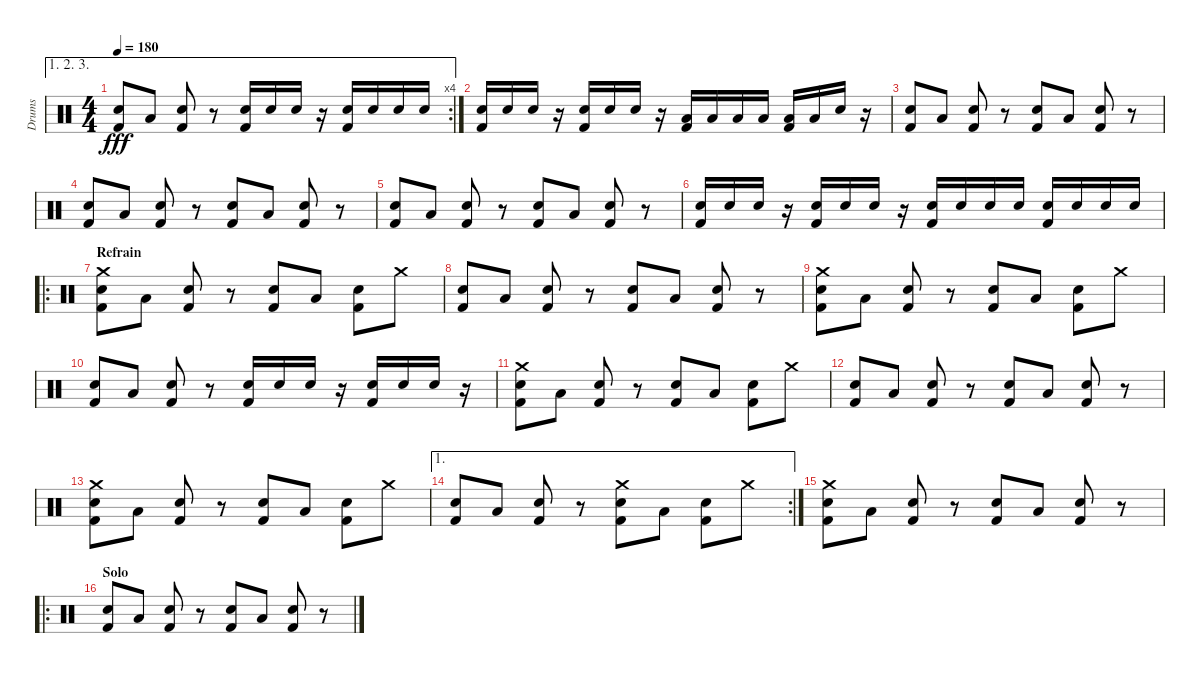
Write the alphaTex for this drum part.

\track ("Drums" "Drums") {instrument percussion}
\staff {score}
\articulation defaults
\ae (1 2 3)
\rc 4
\ts (4 4)
\tempo 180
\clef neutral
\ks c
("Snare (hit) 2" "Kick (hit) 2").8{dy fff} "Low Floor Tom (hit)".8 ("Snare (hit) 2" "Kick (hit) 2").8 r.8 ("Snare (hit) 2" "Kick (hit) 2").16 "Snare (hit) 2".16 "Snare (hit) 2".16 r.16 ("Snare (hit) 2" "Kick (hit) 2").16 "Snare (hit) 2".16 "Snare (hit) 2".16 "Snare (hit) 2".16 |
("Snare (hit) 2" "Kick (hit) 2").16 "Snare (hit) 2".16 "Snare (hit) 2".16 r.16 ("Snare (hit) 2" "Kick (hit) 2").16 "Snare (hit) 2".16 "Snare (hit) 2".16 r.16 ("Low Floor Tom (hit)" "Kick (hit) 2").16 "Low Floor Tom (hit)".16 "Low Floor Tom (hit)".16 "Low Floor Tom (hit)".16 ("Low Floor Tom (hit)" "Kick (hit) 2").16 "Low Floor Tom (hit)".16 "Snare (hit) 2".16 r.16 |
("Snare (hit) 2" "Kick (hit) 2").8 "Low Floor Tom (hit)".8 ("Snare (hit) 2" "Kick (hit) 2").8 r.8 ("Snare (hit) 2" "Kick (hit) 2").8 "Low Floor Tom (hit)".8 ("Snare (hit) 2" "Kick (hit) 2").8 r.8 |
("Snare (hit) 2" "Kick (hit) 2").8 "Low Floor Tom (hit)".8 ("Snare (hit) 2" "Kick (hit) 2").8 r.8 ("Snare (hit) 2" "Kick (hit) 2").8 "Low Floor Tom (hit)".8 ("Snare (hit) 2" "Kick (hit) 2").8 r.8 |
("Snare (hit) 2" "Kick (hit) 2").8 "Low Floor Tom (hit)".8 ("Snare (hit) 2" "Kick (hit) 2").8 r.8 ("Snare (hit) 2" "Kick (hit) 2").8 "Low Floor Tom (hit)".8 ("Snare (hit) 2" "Kick (hit) 2").8 r.8 |
("Snare (hit) 2" "Kick (hit) 2").16 "Snare (hit) 2".16 "Snare (hit) 2".16 r.16 ("Snare (hit) 2" "Kick (hit) 2").16 "Snare (hit) 2".16 "Snare (hit) 2".16 r.16 ("Snare (hit) 2" "Kick (hit) 2").16 "Snare (hit) 2".16 "Snare (hit) 2".16 "Snare (hit) 2".16 ("Snare (hit) 2" "Kick (hit) 2").16 "Snare (hit) 2".16 "Snare (hit) 2".16 "Snare (hit) 2".16 |
\ro
\section ("" "Refrain")
("Crash medium (hit)" "Snare (hit) 2" "Kick (hit) 2").8 "Low Floor Tom (hit)".8 ("Snare (hit) 2" "Kick (hit) 2").8 r.8 ("Snare (hit) 2" "Kick (hit) 2").8 "Low Floor Tom (hit)".8 ("Snare (hit) 2" "Kick (hit) 2").8 "Crash medium (hit)".8 |
("Snare (hit) 2" "Kick (hit) 2").8 "Low Floor Tom (hit)".8 ("Snare (hit) 2" "Kick (hit) 2").8 r.8 ("Snare (hit) 2" "Kick (hit) 2").8 "Low Floor Tom (hit)".8 ("Snare (hit) 2" "Kick (hit) 2").8 r.8 |
("Crash medium (hit)" "Snare (hit) 2" "Kick (hit) 2").8 "Low Floor Tom (hit)".8 ("Snare (hit) 2" "Kick (hit) 2").8 r.8 ("Snare (hit) 2" "Kick (hit) 2").8 "Low Floor Tom (hit)".8 ("Snare (hit) 2" "Kick (hit) 2").8 "Crash medium (hit)".8 |
("Snare (hit) 2" "Kick (hit) 2").8 "Low Floor Tom (hit)".8 ("Snare (hit) 2" "Kick (hit) 2").8 r.8 ("Snare (hit) 2" "Kick (hit) 2").16 "Snare (hit) 2".16 "Snare (hit) 2".16 r.16 ("Snare (hit) 2" "Kick (hit) 2").16 "Snare (hit) 2".16 "Snare (hit) 2".16 r.16 |
("Crash medium (hit)" "Snare (hit) 2" "Kick (hit) 2").8 "Low Floor Tom (hit)".8 ("Snare (hit) 2" "Kick (hit) 2").8 r.8 ("Snare (hit) 2" "Kick (hit) 2").8 "Low Floor Tom (hit)".8 ("Snare (hit) 2" "Kick (hit) 2").8 "Crash medium (hit)".8 |
("Snare (hit) 2" "Kick (hit) 2").8 "Low Floor Tom (hit)".8 ("Snare (hit) 2" "Kick (hit) 2").8 r.8 ("Snare (hit) 2" "Kick (hit) 2").8 "Low Floor Tom (hit)".8 ("Snare (hit) 2" "Kick (hit) 2").8 r.8 |
("Crash medium (hit)" "Snare (hit) 2" "Kick (hit) 2").8 "Low Floor Tom (hit)".8 ("Snare (hit) 2" "Kick (hit) 2").8 r.8 ("Snare (hit) 2" "Kick (hit) 2").8 "Low Floor Tom (hit)".8 ("Snare (hit) 2" "Kick (hit) 2").8 "Crash medium (hit)".8 |
\ae 1
\rc 2
("Snare (hit) 2" "Kick (hit) 2").8 "Low Floor Tom (hit)".8 ("Snare (hit) 2" "Kick (hit) 2").8 r.8 ("Crash medium (hit)" "Snare (hit) 2" "Kick (hit) 2").8 "Low Floor Tom (hit)".8 ("Snare (hit) 2" "Kick (hit) 2").8 "Crash medium (hit)".8 |
("Crash medium (hit)" "Snare (hit) 2" "Kick (hit) 2").8 "Low Floor Tom (hit)".8 ("Snare (hit) 2" "Kick (hit) 2").8 r.8 ("Snare (hit) 2" "Kick (hit) 2").8 "Low Floor Tom (hit)".8 ("Snare (hit) 2" "Kick (hit) 2").8 r.8 |
\ro
\section ("" "Solo")
("Snare (hit) 2" "Kick (hit) 2").8 "Low Floor Tom (hit)".8 ("Snare (hit) 2" "Kick (hit) 2").8 r.8 ("Snare (hit) 2" "Kick (hit) 2").8 "Low Floor Tom (hit)".8 ("Snare (hit) 2" "Kick (hit) 2").8 r.8
